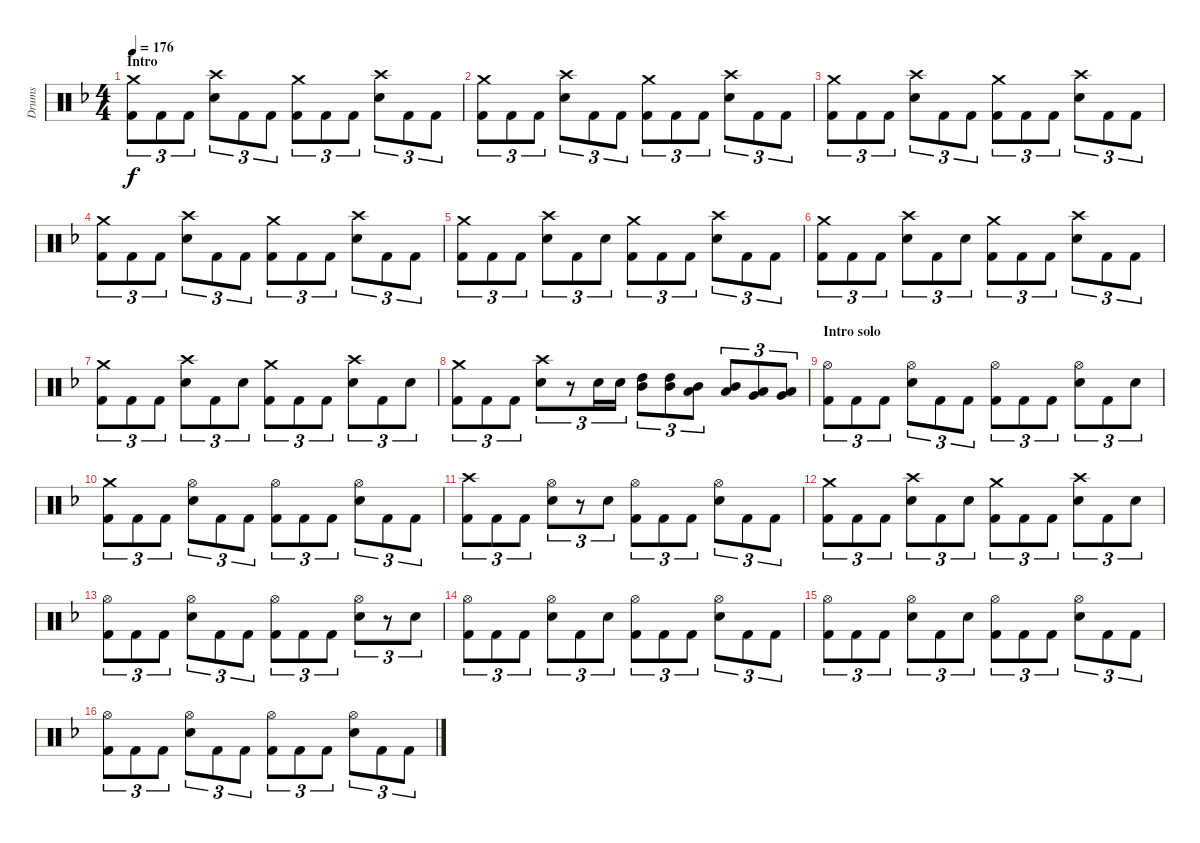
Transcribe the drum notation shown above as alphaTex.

\track ("Drums" "Drums") {instrument percussion}
\staff {score}
\articulation defaults
\ts (4 4)
\section ("" "Intro")
\tempo 176
\clef neutral
\ks f
("Crash medium (hit)" "Kick (hit) 2").8{tu (3 2) dy f} "Kick (hit) 2".8{tu (3 2)} "Kick (hit) 2".8{tu (3 2)} ("Crash high (hit)" "Snare (hit) 2").8{tu (3 2)} "Kick (hit) 2".8{tu (3 2)} "Kick (hit) 2".8{tu (3 2)} ("Crash medium (hit)" "Kick (hit) 2").8{tu (3 2)} "Kick (hit) 2".8{tu (3 2)} "Kick (hit) 2".8{tu (3 2)} ("Crash high (hit)" "Snare (hit) 2").8{tu (3 2)} "Kick (hit) 2".8{tu (3 2)} "Kick (hit) 2".8{tu (3 2)} |
("Crash medium (hit)" "Kick (hit) 2").8{tu (3 2)} "Kick (hit) 2".8{tu (3 2)} "Kick (hit) 2".8{tu (3 2)} ("Crash high (hit)" "Snare (hit) 2").8{tu (3 2)} "Kick (hit) 2".8{tu (3 2)} "Kick (hit) 2".8{tu (3 2)} ("Crash medium (hit)" "Kick (hit) 2").8{tu (3 2)} "Kick (hit) 2".8{tu (3 2)} "Kick (hit) 2".8{tu (3 2)} ("Crash high (hit)" "Snare (hit) 2").8{tu (3 2)} "Kick (hit) 2".8{tu (3 2)} "Kick (hit) 2".8{tu (3 2)} |
("Crash medium (hit)" "Kick (hit) 2").8{tu (3 2)} "Kick (hit) 2".8{tu (3 2)} "Kick (hit) 2".8{tu (3 2)} ("Crash high (hit)" "Snare (hit) 2").8{tu (3 2)} "Kick (hit) 2".8{tu (3 2)} "Kick (hit) 2".8{tu (3 2)} ("Crash medium (hit)" "Kick (hit) 2").8{tu (3 2)} "Kick (hit) 2".8{tu (3 2)} "Kick (hit) 2".8{tu (3 2)} ("Crash high (hit)" "Snare (hit) 2").8{tu (3 2)} "Kick (hit) 2".8{tu (3 2)} "Kick (hit) 2".8{tu (3 2)} |
("Crash medium (hit)" "Kick (hit) 2").8{tu (3 2)} "Kick (hit) 2".8{tu (3 2)} "Kick (hit) 2".8{tu (3 2)} ("Crash high (hit)" "Snare (hit) 2").8{tu (3 2)} "Kick (hit) 2".8{tu (3 2)} "Kick (hit) 2".8{tu (3 2)} ("Crash medium (hit)" "Kick (hit) 2").8{tu (3 2)} "Kick (hit) 2".8{tu (3 2)} "Kick (hit) 2".8{tu (3 2)} ("Crash high (hit)" "Snare (hit) 2").8{tu (3 2)} "Kick (hit) 2".8{tu (3 2)} "Kick (hit) 2".8{tu (3 2)} |
("Crash medium (hit)" "Kick (hit) 2").8{tu (3 2)} "Kick (hit) 2".8{tu (3 2)} "Kick (hit) 2".8{tu (3 2)} ("Crash high (hit)" "Snare (hit) 2").8{tu (3 2)} "Kick (hit) 2".8{tu (3 2)} "Snare (hit) 2".8{tu (3 2)} ("Crash medium (hit)" "Kick (hit) 2").8{tu (3 2)} "Kick (hit) 2".8{tu (3 2)} "Kick (hit) 2".8{tu (3 2)} ("Crash high (hit)" "Snare (hit) 2").8{tu (3 2)} "Kick (hit) 2".8{tu (3 2)} "Kick (hit) 2".8{tu (3 2)} |
("Crash medium (hit)" "Kick (hit) 2").8{tu (3 2)} "Kick (hit) 2".8{tu (3 2)} "Kick (hit) 2".8{tu (3 2)} ("Crash high (hit)" "Snare (hit) 2").8{tu (3 2)} "Kick (hit) 2".8{tu (3 2)} "Snare (hit) 2".8{tu (3 2)} ("Crash medium (hit)" "Kick (hit) 2").8{tu (3 2)} "Kick (hit) 2".8{tu (3 2)} "Kick (hit) 2".8{tu (3 2)} ("Crash high (hit)" "Snare (hit) 2").8{tu (3 2)} "Kick (hit) 2".8{tu (3 2)} "Kick (hit) 2".8{tu (3 2)} |
("Crash medium (hit)" "Kick (hit) 2").8{tu (3 2)} "Kick (hit) 2".8{tu (3 2)} "Kick (hit) 2".8{tu (3 2)} ("Crash high (hit)" "Snare (hit) 2").8{tu (3 2)} "Kick (hit) 2".8{tu (3 2)} "Snare (hit) 2".8{tu (3 2)} ("Crash medium (hit)" "Kick (hit) 2").8{tu (3 2)} "Kick (hit) 2".8{tu (3 2)} "Kick (hit) 2".8{tu (3 2)} ("Crash high (hit)" "Snare (hit) 2").8{tu (3 2)} "Kick (hit) 2".8{tu (3 2)} "Snare (hit) 2".8{tu (3 2)} |
("Crash medium (hit)" "Kick (hit) 2").8{tu (3 2)} "Kick (hit) 2".8{tu (3 2)} "Kick (hit) 2".8{tu (3 2)} ("Crash high (hit)" "Snare (hit) 2").8{tu (3 2)} r.8{tu (3 2)} "Snare (hit) 2".16{tu (3 2)} "Snare (hit) 2".16{tu (3 2)} ("High Tom (hit)" "Mid Tom (hit)").8{tu (3 2)} ("High Tom (hit)" "Mid Tom (hit)").8{tu (3 2)} ("Mid Tom (hit)" "Low Tom (hit)").8{tu (3 2)} ("Mid Tom (hit)" "Low Tom (hit)").8{tu (3 2)} ("Low Tom (hit)" "Very Low Tom (hit)").8{tu (3 2)} ("Low Tom (hit)" "Very Low Tom (hit)").8{tu (3 2)} |
\section ("" "Intro solo")
("Hi-Hat (open)" "Kick (hit) 2").8{tu (3 2)} "Kick (hit) 2".8{tu (3 2)} "Kick (hit) 2".8{tu (3 2)} ("Hi-Hat (open)" "Snare (hit) 2").8{tu (3 2)} "Kick (hit) 2".8{tu (3 2)} "Kick (hit) 2".8{tu (3 2)} ("Hi-Hat (open)" "Kick (hit) 2").8{tu (3 2)} "Kick (hit) 2".8{tu (3 2)} "Kick (hit) 2".8{tu (3 2)} ("Hi-Hat (open)" "Snare (hit) 2").8{tu (3 2)} "Kick (hit) 2".8{tu (3 2)} "Snare (hit) 2".8{tu (3 2)} |
("Crash medium (hit)" "Kick (hit) 2").8{tu (3 2)} "Kick (hit) 2".8{tu (3 2)} "Kick (hit) 2".8{tu (3 2)} ("Hi-Hat (open)" "Snare (hit) 2").8{tu (3 2)} "Kick (hit) 2".8{tu (3 2)} "Kick (hit) 2".8{tu (3 2)} ("Hi-Hat (open)" "Kick (hit) 2").8{tu (3 2)} "Kick (hit) 2".8{tu (3 2)} "Kick (hit) 2".8{tu (3 2)} ("Hi-Hat (open)" "Snare (hit) 2").8{tu (3 2)} "Kick (hit) 2".8{tu (3 2)} "Kick (hit) 2".8{tu (3 2)} |
("Crash high (hit)" "Kick (hit) 2").8{tu (3 2)} "Kick (hit) 2".8{tu (3 2)} "Kick (hit) 2".8{tu (3 2)} ("Hi-Hat (open)" "Snare (hit) 2").8{tu (3 2)} r.8{tu (3 2)} "Snare (hit) 2".8{tu (3 2)} ("Hi-Hat (open)" "Kick (hit) 2").8{tu (3 2)} "Kick (hit) 2".8{tu (3 2)} "Kick (hit) 2".8{tu (3 2)} ("Hi-Hat (open)" "Snare (hit) 2").8{tu (3 2)} "Kick (hit) 2".8{tu (3 2)} "Kick (hit) 2".8{tu (3 2)} |
("Crash medium (hit)" "Kick (hit) 2").8{tu (3 2)} "Kick (hit) 2".8{tu (3 2)} "Kick (hit) 2".8{tu (3 2)} ("Crash high (hit)" "Snare (hit) 2").8{tu (3 2)} "Kick (hit) 2".8{tu (3 2)} "Snare (hit) 2".8{tu (3 2)} ("Crash medium (hit)" "Kick (hit) 2").8{tu (3 2)} "Kick (hit) 2".8{tu (3 2)} "Kick (hit) 2".8{tu (3 2)} ("Crash high (hit)" "Snare (hit) 2").8{tu (3 2)} "Kick (hit) 2".8{tu (3 2)} "Snare (hit) 2".8{tu (3 2)} |
("Hi-Hat (open)" "Kick (hit) 2").8{tu (3 2)} "Kick (hit) 2".8{tu (3 2)} "Kick (hit) 2".8{tu (3 2)} ("Hi-Hat (open)" "Snare (hit) 2").8{tu (3 2)} "Kick (hit) 2".8{tu (3 2)} "Kick (hit) 2".8{tu (3 2)} ("Hi-Hat (open)" "Kick (hit) 2").8{tu (3 2)} "Kick (hit) 2".8{tu (3 2)} "Kick (hit) 2".8{tu (3 2)} ("Hi-Hat (open)" "Snare (hit) 2").8{tu (3 2)} r.8{tu (3 2)} "Snare (hit) 2".8{tu (3 2)} |
("Hi-Hat (open)" "Kick (hit) 2").8{tu (3 2)} "Kick (hit) 2".8{tu (3 2)} "Kick (hit) 2".8{tu (3 2)} ("Hi-Hat (open)" "Snare (hit) 2").8{tu (3 2)} "Kick (hit) 2".8{tu (3 2)} "Snare (hit) 2".8{tu (3 2)} ("Hi-Hat (open)" "Kick (hit) 2").8{tu (3 2)} "Kick (hit) 2".8{tu (3 2)} "Kick (hit) 2".8{tu (3 2)} ("Hi-Hat (open)" "Snare (hit) 2").8{tu (3 2)} "Kick (hit) 2".8{tu (3 2)} "Kick (hit) 2".8{tu (3 2)} |
("Hi-Hat (open)" "Kick (hit) 2").8{tu (3 2)} "Kick (hit) 2".8{tu (3 2)} "Kick (hit) 2".8{tu (3 2)} ("Hi-Hat (open)" "Snare (hit) 2").8{tu (3 2)} "Kick (hit) 2".8{tu (3 2)} "Snare (hit) 2".8{tu (3 2)} ("Hi-Hat (open)" "Kick (hit) 2").8{tu (3 2)} "Kick (hit) 2".8{tu (3 2)} "Kick (hit) 2".8{tu (3 2)} ("Hi-Hat (open)" "Snare (hit) 2").8{tu (3 2)} "Kick (hit) 2".8{tu (3 2)} "Kick (hit) 2".8{tu (3 2)} |
("Hi-Hat (open)" "Kick (hit) 2").8{tu (3 2)} "Kick (hit) 2".8{tu (3 2)} "Kick (hit) 2".8{tu (3 2)} ("Hi-Hat (open)" "Snare (hit) 2").8{tu (3 2)} "Kick (hit) 2".8{tu (3 2)} "Kick (hit) 2".8{tu (3 2)} ("Hi-Hat (open)" "Kick (hit) 2").8{tu (3 2)} "Kick (hit) 2".8{tu (3 2)} "Kick (hit) 2".8{tu (3 2)} ("Hi-Hat (open)" "Snare (hit) 2").8{tu (3 2)} "Kick (hit) 2".8{tu (3 2)} "Kick (hit) 2".8{tu (3 2)}
